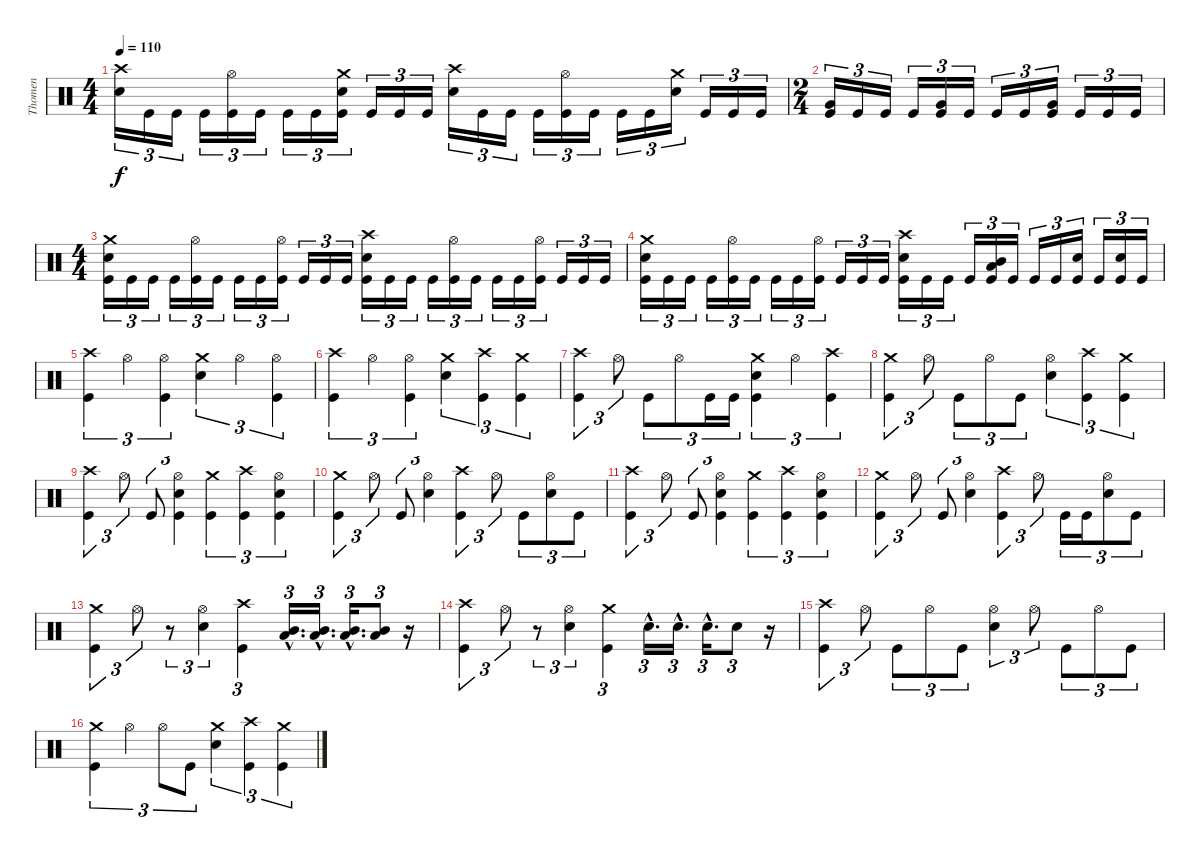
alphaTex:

\track ("Thomen" "Thomen") {instrument percussion}
\staff {score}
\articulation defaults
\ts (4 4)
\tempo 110
\clef neutral
\ks c
("Crash high (hit)" "Snare (hit) 2").16{tu (3 2) dy f} "Kick (hit)".16{tu (3 2)} "Kick (hit)".16{tu (3 2)} "Kick (hit)".16{tu (3 2)} ("Hi-Hat (open)" "Kick (hit)").16{tu (3 2)} "Kick (hit)".16{tu (3 2)} "Kick (hit)".16{tu (3 2)} "Kick (hit)".16{tu (3 2)} ("Crash medium (hit)" "Snare (hit) 2" "Kick (hit)").16{tu (3 2)} "Kick (hit)".16{tu (3 2)} "Kick (hit)".16{tu (3 2)} "Kick (hit)".16{tu (3 2)} ("Crash high (hit)" "Snare (hit) 2").16{tu (3 2)} "Kick (hit)".16{tu (3 2)} "Kick (hit)".16{tu (3 2)} "Kick (hit)".16{tu (3 2)} ("Hi-Hat (open)" "Kick (hit)").16{tu (3 2)} "Kick (hit)".16{tu (3 2)} "Kick (hit)".16{tu (3 2)} "Kick (hit)".16{tu (3 2)} ("Crash medium (hit)" "Snare (hit) 2").16{tu (3 2)} "Kick (hit)".16{tu (3 2)} "Kick (hit)".16{tu (3 2)} "Kick (hit)".16{tu (3 2)} |
\ts (2 4)
("Very Low Tom (hit)" "Kick (hit)").16{tu (3 2)} "Kick (hit)".16{tu (3 2)} "Kick (hit)".16{tu (3 2)} "Kick (hit)".16{tu (3 2)} ("Very Low Tom (hit)" "Kick (hit)").16{tu (3 2)} "Kick (hit)".16{tu (3 2)} "Kick (hit)".16{tu (3 2)} "Kick (hit)".16{tu (3 2)} ("Very Low Tom (hit)" "Kick (hit)").16{tu (3 2)} "Kick (hit)".16{tu (3 2)} "Kick (hit)".16{tu (3 2)} "Kick (hit)".16{tu (3 2)} |
\ts (4 4)
("Crash medium (hit)" "Snare (hit) 2" "Kick (hit)").16{tu (3 2)} "Kick (hit)".16{tu (3 2)} "Kick (hit)".16{tu (3 2)} "Kick (hit)".16{tu (3 2)} ("Hi-Hat (open)" "Kick (hit)").16{tu (3 2)} "Kick (hit)".16{tu (3 2)} "Kick (hit)".16{tu (3 2)} "Kick (hit)".16{tu (3 2)} ("Hi-Hat (open)" "Kick (hit)").16{tu (3 2)} "Kick (hit)".16{tu (3 2)} "Kick (hit)".16{tu (3 2)} "Kick (hit)".16{tu (3 2)} ("Crash high (hit)" "Snare (hit) 2" "Kick (hit)").16{tu (3 2)} "Kick (hit)".16{tu (3 2)} "Kick (hit)".16{tu (3 2)} "Kick (hit)".16{tu (3 2)} ("Hi-Hat (open)" "Kick (hit)").16{tu (3 2)} "Kick (hit)".16{tu (3 2)} "Kick (hit)".16{tu (3 2)} "Kick (hit)".16{tu (3 2)} ("Hi-Hat (open)" "Kick (hit)").16{tu (3 2)} "Kick (hit)".16{tu (3 2)} "Kick (hit)".16{tu (3 2)} "Kick (hit)".16{tu (3 2)} |
("Crash medium (hit)" "Snare (hit) 2" "Kick (hit)").16{tu (3 2)} "Kick (hit)".16{tu (3 2)} "Kick (hit)".16{tu (3 2)} "Kick (hit)".16{tu (3 2)} ("Hi-Hat (open)" "Kick (hit)").16{tu (3 2)} "Kick (hit)".16{tu (3 2)} "Kick (hit)".16{tu (3 2)} "Kick (hit)".16{tu (3 2)} ("Hi-Hat (open)" "Kick (hit)").16{tu (3 2)} "Kick (hit)".16{tu (3 2)} "Kick (hit)".16{tu (3 2)} "Kick (hit)".16{tu (3 2)} ("Crash high (hit)" "Snare (hit) 2" "Kick (hit)").16{tu (3 2)} "Kick (hit)".16{tu (3 2)} "Kick (hit)".16{tu (3 2)} "Kick (hit)".16{tu (3 2)} ("Mid Tom (hit)" "Low Tom (hit)" "Kick (hit)").16{tu (3 2)} "Kick (hit)".16{tu (3 2)} "Kick (hit)".16{tu (3 2)} "Kick (hit)".16{tu (3 2)} ("Snare (hit) 2" "Kick (hit)").16{tu (3 2)} "Kick (hit)".16{tu (3 2)} ("Snare (hit) 2" "Kick (hit)").16{tu (3 2)} "Kick (hit)".16{tu (3 2)} |
("Crash high (hit)" "Kick (hit)").4{tu (3 2)} "Hi-Hat (open)".4{tu (3 2)} ("Hi-Hat (open)" "Kick (hit)").4{tu (3 2)} ("Crash medium (hit)" "Snare (hit) 2").4{tu (3 2)} "Hi-Hat (open)".4{tu (3 2)} ("Hi-Hat (open)" "Kick (hit)").4{tu (3 2)} |
("Crash high (hit)" "Kick (hit)").4{tu (3 2)} "Hi-Hat (open)".4{tu (3 2)} ("Hi-Hat (open)" "Kick (hit)").4{tu (3 2)} ("Crash medium (hit)" "Snare (hit) 2").4{tu (3 2)} ("Crash high (hit)" "Kick (hit)").4{tu (3 2)} ("Crash medium (hit)" "Kick (hit)").4{tu (3 2)} |
("Crash high (hit)" "Kick (hit)").4{tu (3 2)} "Hi-Hat (open)".8{tu (3 2)} "Kick (hit)".8{tu (3 2)} "Hi-Hat (open)".8{tu (3 2)} "Kick (hit)".16{tu (3 2)} "Kick (hit)".16{tu (3 2)} ("Crash medium (hit)" "Snare (hit) 2" "Kick (hit)").4{tu (3 2)} "Hi-Hat (open)".4{tu (3 2)} ("Crash high (hit)" "Kick (hit)").4{tu (3 2)} |
("Crash medium (hit)" "Kick (hit)").4{tu (3 2)} "Hi-Hat (open)".8{tu (3 2)} "Kick (hit)".8{tu (3 2)} "Hi-Hat (open)".8{tu (3 2)} "Kick (hit)".8{tu (3 2)} ("Hi-Hat (open)" "Snare (hit) 2").4{tu (3 2)} ("Crash high (hit)" "Kick (hit)").4{tu (3 2)} ("Crash medium (hit)" "Kick (hit)").4{tu (3 2)} |
("Crash high (hit)" "Kick (hit)").4{tu (3 2)} "Hi-Hat (open)".8{tu (3 2)} "Kick (hit)".8{tu (3 2)} ("Hi-Hat (open)" "Snare (hit) 2" "Kick (hit)").4{tu (3 2)} ("Crash medium (hit)" "Kick (hit)").4{tu (3 2)} ("Crash high (hit)" "Kick (hit)").4{tu (3 2)} ("Hi-Hat (open)" "Snare (hit) 2" "Kick (hit)").4{tu (3 2)} |
("Crash medium (hit)" "Kick (hit)").4{tu (3 2)} "Hi-Hat (open)".8{tu (3 2)} "Kick (hit)".8{tu (3 2)} ("Hi-Hat (open)" "Snare (hit) 2").4{tu (3 2)} ("Crash high (hit)" "Kick (hit)").4{tu (3 2)} "Hi-Hat (open)".8{tu (3 2)} "Kick (hit)".8{tu (3 2)} ("Hi-Hat (open)" "Snare (hit) 2").8{tu (3 2)} "Kick (hit)".8{tu (3 2)} |
("Crash high (hit)" "Kick (hit)").4{tu (3 2)} "Hi-Hat (open)".8{tu (3 2)} "Kick (hit)".8{tu (3 2)} ("Hi-Hat (open)" "Snare (hit) 2" "Kick (hit)").4{tu (3 2)} ("Crash medium (hit)" "Kick (hit)").4{tu (3 2)} ("Crash high (hit)" "Kick (hit)").4{tu (3 2)} ("Hi-Hat (open)" "Snare (hit) 2" "Kick (hit)").4{tu (3 2)} |
("Crash medium (hit)" "Kick (hit)").4{tu (3 2)} "Hi-Hat (open)".8{tu (3 2)} "Kick (hit)".8{tu (3 2)} ("Hi-Hat (open)" "Snare (hit) 2").4{tu (3 2)} ("Crash high (hit)" "Kick (hit)").4{tu (3 2)} "Hi-Hat (open)".8{tu (3 2)} "Kick (hit)".16{tu (3 2)} "Kick (hit)".16{tu (3 2)} ("Hi-Hat (open)" "Snare (hit) 2").8{tu (3 2)} "Kick (hit)".8{tu (3 2)} |
("Crash medium (hit)" "Kick (hit)").4{tu (3 2)} "Hi-Hat (open)".8{tu (3 2)} r.8{tu (3 2)} ("Hi-Hat (open)" "Snare (hit) 2").4{tu (3 2)} ("Crash high (hit)" "Kick (hit)").4{tu (3 2)} ("Mid Tom (hit)"{hac} "Low Tom (hit)"{hac}).16{d tu (3 2)} ("Mid Tom (hit)"{hac} "Low Tom (hit)"{hac}).16{d tu (3 2)} ("Mid Tom (hit)"{hac} "Low Tom (hit)"{hac}).16{d tu (3 2)} ("Mid Tom (hit)" "Low Tom (hit)").8{tu (3 2)} r.16 |
("Crash high (hit)" "Kick (hit)").4{tu (3 2)} "Hi-Hat (open)".8{tu (3 2)} r.8{tu (3 2)} ("Hi-Hat (open)" "Snare (hit) 2").4{tu (3 2)} ("Crash medium (hit)" "Kick (hit)").4{tu (3 2)} "Snare (hit) 2"{hac}.16{d tu (3 2)} "Snare (hit) 2"{hac}.16{d tu (3 2)} "Snare (hit) 2"{hac}.16{d tu (3 2)} "Snare (hit) 2".8{tu (3 2)} r.16 |
("Crash high (hit)" "Kick (hit)").4{tu (3 2)} "Hi-Hat (open)".8{tu (3 2)} "Kick (hit)".8{tu (3 2)} "Hi-Hat (open)".8{tu (3 2)} "Kick (hit)".8{tu (3 2)} ("Hi-Hat (open)" "Snare (hit) 2").4{tu (3 2)} "Hi-Hat (open)".8{tu (3 2)} "Kick (hit)".8{tu (3 2)} "Hi-Hat (open)".8{tu (3 2)} "Kick (hit)".8{tu (3 2)} |
("Crash medium (hit)" "Kick (hit)").4{tu (3 2)} "Hi-Hat (open)".4{tu (3 2)} "Hi-Hat (open)".8{tu (3 2)} "Kick (hit)".8{tu (3 2)} ("Crash medium (hit)" "Snare (hit) 2").4{tu (3 2)} ("Crash high (hit)" "Kick (hit)").4{tu (3 2)} ("Crash medium (hit)" "Kick (hit)").4{tu (3 2)}
